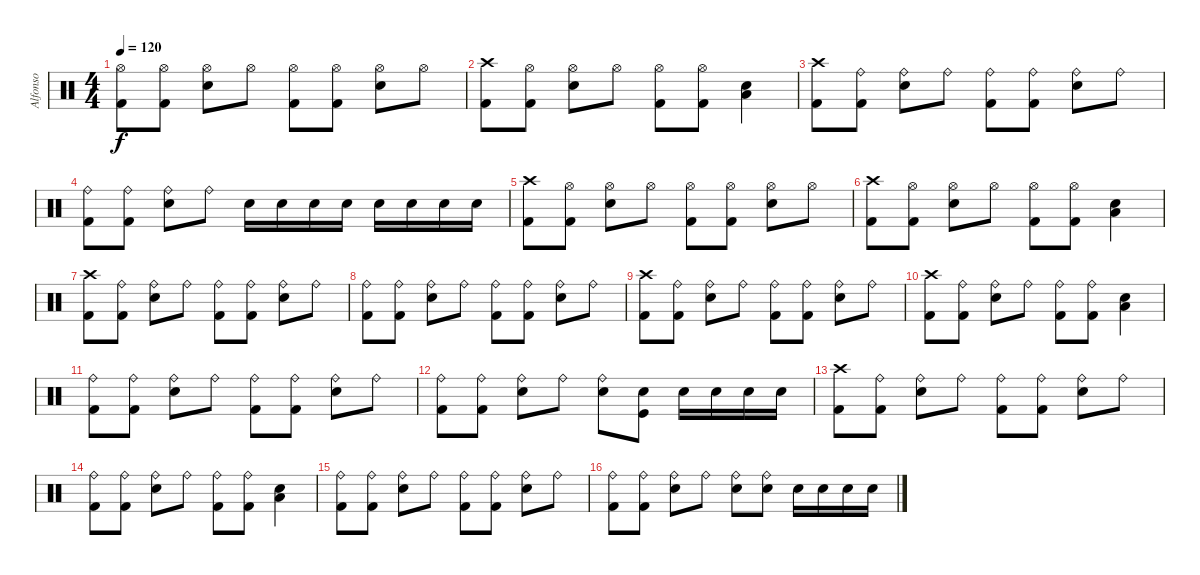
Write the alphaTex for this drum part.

\track ("Alfonso" "Alfonso") {instrument percussion}
\staff {score}
\articulation defaults
\ts (4 4)
\tempo 120
\clef neutral
\ks c
("Hi-Hat (open)" "Kick (hit) 2").8{dy f} ("Hi-Hat (open)" "Kick (hit) 2").8 ("Hi-Hat (open)" "Electric Snare (hit)").8 "Hi-Hat (open)".8 ("Hi-Hat (open)" "Kick (hit) 2").8 ("Hi-Hat (open)" "Kick (hit) 2").8 ("Hi-Hat (open)" "Electric Snare (hit)").8 "Hi-Hat (open)".8 |
("Crash high (hit)" "Kick (hit) 2").8 ("Hi-Hat (open)" "Kick (hit) 2").8 ("Hi-Hat (open)" "Electric Snare (hit)").8 "Hi-Hat (open)".8 ("Hi-Hat (open)" "Kick (hit) 2").8 ("Hi-Hat (open)" "Kick (hit) 2").8 ("Low Floor Tom (hit)" "Electric Snare (hit)").4 |
("Crash high (hit)" "Kick (hit) 2").8 ("Ride (bell)" "Kick (hit) 2").8 ("Ride (bell)" "Electric Snare (hit)").8 "Ride (bell)".8 ("Ride (bell)" "Kick (hit) 2").8 ("Ride (bell)" "Kick (hit) 2").8 ("Ride (bell)" "Electric Snare (hit)").8 "Ride (bell)".8 |
("Ride (bell)" "Kick (hit) 2").8 ("Ride (bell)" "Kick (hit) 2").8 ("Ride (bell)" "Electric Snare (hit)").8 "Ride (bell)".8 "Electric Snare (hit)".16 "Electric Snare (hit)".16 "Electric Snare (hit)".16 "Electric Snare (hit)".16 "Electric Snare (hit)".16 "Electric Snare (hit)".16 "Electric Snare (hit)".16 "Electric Snare (hit)".16 |
("Crash high (hit)" "Kick (hit) 2").8 ("Hi-Hat (open)" "Kick (hit) 2").8 ("Hi-Hat (open)" "Electric Snare (hit)").8 "Hi-Hat (open)".8 ("Hi-Hat (open)" "Kick (hit) 2").8 ("Hi-Hat (open)" "Kick (hit) 2").8 ("Hi-Hat (open)" "Electric Snare (hit)").8 "Hi-Hat (open)".8 |
("Crash high (hit)" "Kick (hit) 2").8 ("Hi-Hat (open)" "Kick (hit) 2").8 ("Hi-Hat (open)" "Electric Snare (hit)").8 "Hi-Hat (open)".8 ("Hi-Hat (open)" "Kick (hit) 2").8 ("Hi-Hat (open)" "Kick (hit) 2").8 ("Low Floor Tom (hit)" "Electric Snare (hit)").4 |
("Crash high (hit)" "Kick (hit) 2").8 ("Ride (bell)" "Kick (hit) 2").8 ("Ride (bell)" "Electric Snare (hit)").8 "Ride (bell)".8 ("Ride (bell)" "Kick (hit) 2").8 ("Ride (bell)" "Kick (hit) 2").8 ("Ride (bell)" "Electric Snare (hit)").8 "Ride (bell)".8 |
("Ride (bell)" "Kick (hit) 2").8 ("Ride (bell)" "Kick (hit) 2").8 ("Ride (bell)" "Electric Snare (hit)").8 "Ride (bell)".8 ("Ride (bell)" "Kick (hit) 2").8 ("Ride (bell)" "Kick (hit) 2").8 ("Ride (bell)" "Electric Snare (hit)").8 "Ride (bell)".8 |
("Crash high (hit)" "Kick (hit) 2").8 ("Ride (bell)" "Kick (hit) 2").8 ("Ride (bell)" "Electric Snare (hit)").8 "Ride (bell)".8 ("Ride (bell)" "Kick (hit) 2").8 ("Ride (bell)" "Kick (hit) 2").8 ("Ride (bell)" "Electric Snare (hit)").8 "Ride (bell)".8 |
("Crash high (hit)" "Kick (hit) 2").8 ("Ride (bell)" "Kick (hit) 2").8 ("Ride (bell)" "Electric Snare (hit)").8 "Ride (bell)".8 ("Ride (bell)" "Kick (hit) 2").8 ("Ride (bell)" "Kick (hit) 2").8 ("Low Floor Tom (hit)" "Electric Snare (hit)").4 |
("Ride (bell)" "Kick (hit) 2").8 ("Ride (bell)" "Kick (hit) 2").8 ("Ride (bell)" "Electric Snare (hit)").8 "Ride (bell)".8 ("Ride (bell)" "Kick (hit) 2").8 ("Ride (bell)" "Kick (hit) 2").8 ("Ride (bell)" "Electric Snare (hit)").8 "Ride (bell)".8 |
("Ride (bell)" "Kick (hit) 2").8 ("Ride (bell)" "Kick (hit) 2").8 ("Ride (bell)" "Electric Snare (hit)").8 "Ride (bell)".8 ("Ride (bell)" "Electric Snare (hit)").8 ("Kick (hit)" "Electric Snare (hit)").8 "Electric Snare (hit)".16 "Electric Snare (hit)".16 "Electric Snare (hit)".16 "Electric Snare (hit)".16 |
("Crash high (hit)" "Kick (hit) 2").8 ("Ride (bell)" "Kick (hit) 2").8 ("Ride (bell)" "Electric Snare (hit)").8 "Ride (bell)".8 ("Ride (bell)" "Kick (hit) 2").8 ("Ride (bell)" "Kick (hit) 2").8 ("Ride (bell)" "Electric Snare (hit)").8 "Ride (bell)".8 |
("Ride (bell)" "Kick (hit) 2").8 ("Ride (bell)" "Kick (hit) 2").8 ("Ride (bell)" "Electric Snare (hit)").8 "Ride (bell)".8 ("Ride (bell)" "Kick (hit) 2").8 ("Ride (bell)" "Kick (hit) 2").8 ("Low Floor Tom (hit)" "Electric Snare (hit)").4 |
("Ride (bell)" "Kick (hit) 2").8 ("Ride (bell)" "Kick (hit) 2").8 ("Ride (bell)" "Electric Snare (hit)").8 "Ride (bell)".8 ("Ride (bell)" "Kick (hit) 2").8 ("Ride (bell)" "Kick (hit) 2").8 ("Ride (bell)" "Electric Snare (hit)").8 "Ride (bell)".8 |
("Ride (bell)" "Kick (hit) 2").8 ("Ride (bell)" "Kick (hit) 2").8 ("Ride (bell)" "Electric Snare (hit)").8 "Ride (bell)".8 ("Ride (bell)" "Electric Snare (hit)").8 ("Ride (bell)" "Electric Snare (hit)").8 "Electric Snare (hit)".16 "Electric Snare (hit)".16 "Electric Snare (hit)".16 "Electric Snare (hit)".16
